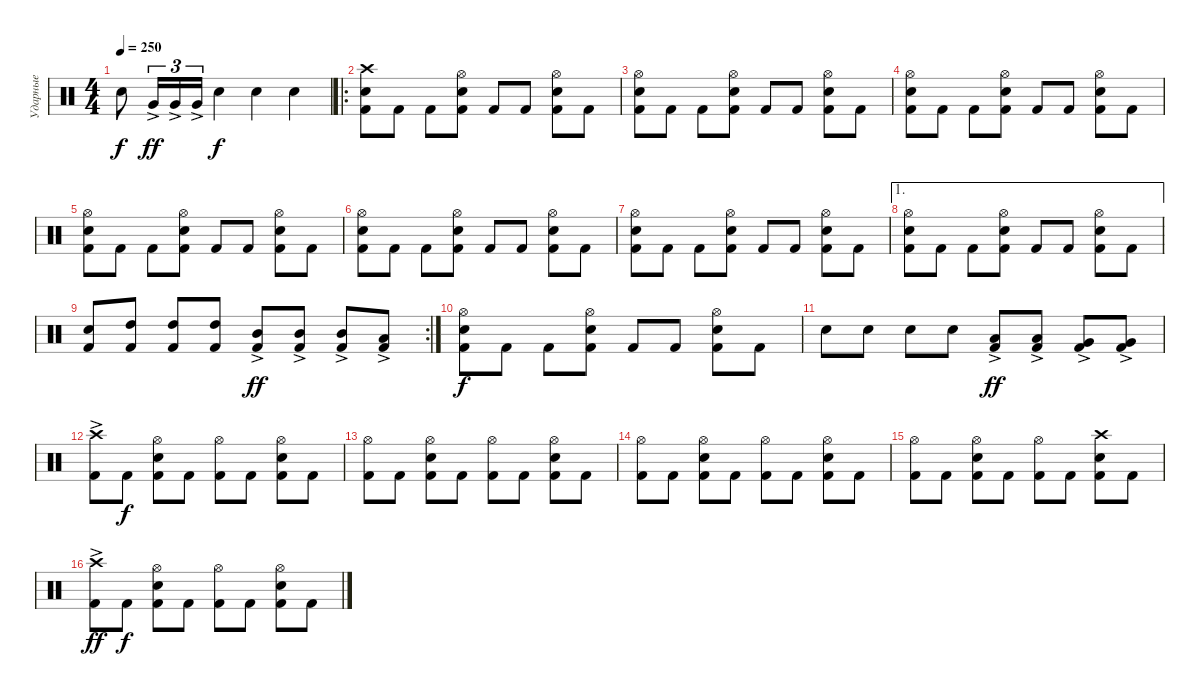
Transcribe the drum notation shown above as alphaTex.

\track ("Ударные" "Ударные") {instrument percussion}
\staff {score}
\articulation defaults
\ts (4 4)
\tempo 250
\clef neutral
\ks c "Snare (hit)"{t}.8{dy f} "Very Low Tom (hit)"{ac}.16{tu (3 2) dy ff} "Very Low Tom (hit)"{ac}.16{tu (3 2)} "Very Low Tom (hit)"{ac}.16{tu (3 2)} "Snare (hit) 2".4{dy f} "Snare (hit) 2".4 "Snare (hit) 2".4
|
\ro
("Kick (hit) 2" "Snare (hit) 2" "Crash high (hit)").8 "Kick (hit) 2".8 "Kick (hit) 2".8 ("Kick (hit) 2" "Snare (hit) 2" "Hi-Hat (open)").8 "Kick (hit) 2".8 "Kick (hit) 2".8 ("Kick (hit) 2" "Snare (hit) 2" "Hi-Hat (open)").8 "Kick (hit) 2".8 |
("Kick (hit) 2" "Snare (hit) 2" "Hi-Hat (open)").8 "Kick (hit) 2".8 "Kick (hit) 2".8 ("Kick (hit) 2" "Snare (hit) 2" "Hi-Hat (open)").8 "Kick (hit) 2".8 "Kick (hit) 2".8 ("Kick (hit) 2" "Snare (hit) 2" "Hi-Hat (open)").8 "Kick (hit) 2".8 |
("Kick (hit) 2" "Snare (hit) 2" "Hi-Hat (open)").8 "Kick (hit) 2".8 "Kick (hit) 2".8 ("Kick (hit) 2" "Snare (hit) 2" "Hi-Hat (open)").8 "Kick (hit) 2".8 "Kick (hit) 2".8 ("Kick (hit) 2" "Snare (hit) 2" "Hi-Hat (open)").8 "Kick (hit) 2".8 |
("Kick (hit) 2" "Snare (hit) 2" "Hi-Hat (open)").8 "Kick (hit) 2".8 "Kick (hit) 2".8 ("Kick (hit) 2" "Snare (hit) 2" "Hi-Hat (open)").8 "Kick (hit) 2".8 "Kick (hit) 2".8 ("Kick (hit) 2" "Snare (hit) 2" "Hi-Hat (open)").8 "Kick (hit) 2".8 |
("Kick (hit) 2" "Snare (hit) 2" "Hi-Hat (open)").8 "Kick (hit) 2".8 "Kick (hit) 2".8 ("Kick (hit) 2" "Snare (hit) 2" "Hi-Hat (open)").8 "Kick (hit) 2".8 "Kick (hit) 2".8 ("Kick (hit) 2" "Snare (hit) 2" "Hi-Hat (open)").8 "Kick (hit) 2".8 |
("Kick (hit) 2" "Snare (hit) 2" "Hi-Hat (open)").8 "Kick (hit) 2".8 "Kick (hit) 2".8 ("Kick (hit) 2" "Snare (hit) 2" "Hi-Hat (open)").8 "Kick (hit) 2".8 "Kick (hit) 2".8 ("Kick (hit) 2" "Snare (hit) 2" "Hi-Hat (open)").8 "Kick (hit) 2".8 |
\ae 1
("Kick (hit) 2" "Snare (hit) 2" "Hi-Hat (open)").8 "Kick (hit) 2".8 "Kick (hit) 2".8 ("Kick (hit) 2" "Snare (hit) 2" "Hi-Hat (open)").8 "Kick (hit) 2".8 "Kick (hit) 2".8 ("Kick (hit) 2" "Snare (hit) 2" "Hi-Hat (open)").8 "Kick (hit) 2".8 |
\rc 2
("Kick (hit) 2" "Snare (hit) 2").8 ("Kick (hit) 2" "High Tom (hit)").8 ("Kick (hit) 2" "High Tom (hit)").8 ("Kick (hit) 2" "High Tom (hit)").8 ("Kick (hit) 2" "Mid Tom (hit)"{ac}).8{dy ff} ("Kick (hit) 2" "Mid Tom (hit)"{ac}).8 ("Kick (hit) 2" "Mid Tom (hit)"{ac}).8 ("Kick (hit) 2" "Low Tom (hit)"{ac}).8 |
("Kick (hit) 2" "Snare (hit) 2" "Hi-Hat (open)").8{dy f} "Kick (hit) 2".8 "Kick (hit) 2".8 ("Kick (hit) 2" "Snare (hit) 2" "Hi-Hat (open)").8 "Kick (hit) 2".8 "Kick (hit) 2".8 ("Kick (hit) 2" "Snare (hit) 2" "Hi-Hat (open)").8 "Kick (hit) 2".8 |
"Snare (hit) 2".8 "Snare (hit) 2".8 "Snare (hit) 2".8 "Snare (hit) 2".8 ("Kick (hit) 2" "Low Tom (hit)"{ac}).8{dy ff} ("Kick (hit) 2" "Low Tom (hit)"{ac}).8 ("Kick (hit) 2" "Very Low Tom (hit)"{ac}).8 ("Kick (hit) 2" "Very Low Tom (hit)"{ac}).8 |
("Kick (hit) 2" "Crash high (hit)"{ac}).8 "Kick (hit) 2".8{dy f} ("Kick (hit) 2" "Snare (hit) 2" "Hi-Hat (open)").8 "Kick (hit) 2".8 ("Kick (hit) 2" "Hi-Hat (open)").8 "Kick (hit) 2".8 ("Kick (hit) 2" "Snare (hit) 2" "Hi-Hat (open)").8 "Kick (hit) 2".8 |
("Kick (hit) 2" "Hi-Hat (open)").8 "Kick (hit) 2".8 ("Kick (hit) 2" "Snare (hit) 2" "Hi-Hat (open)").8 "Kick (hit) 2".8 ("Kick (hit) 2" "Hi-Hat (open)").8 "Kick (hit) 2".8 ("Kick (hit) 2" "Snare (hit) 2" "Hi-Hat (open)").8 "Kick (hit) 2".8 |
("Kick (hit) 2" "Hi-Hat (open)").8 "Kick (hit) 2".8 ("Kick (hit) 2" "Snare (hit) 2" "Hi-Hat (open)").8 "Kick (hit) 2".8 ("Kick (hit) 2" "Hi-Hat (open)").8 "Kick (hit) 2".8 ("Kick (hit) 2" "Snare (hit) 2" "Hi-Hat (open)").8 "Kick (hit) 2".8 |
("Kick (hit) 2" "Hi-Hat (open)").8 "Kick (hit) 2".8 ("Kick (hit) 2" "Snare (hit) 2" "Hi-Hat (open)").8 "Kick (hit) 2".8 ("Kick (hit) 2" "Hi-Hat (open)").8 "Kick (hit) 2".8 ("Kick (hit) 2" "Snare (hit) 2" "Crash high (hit)").8 "Kick (hit) 2".8 |
("Kick (hit) 2" "Crash high (hit)"{ac}).8{dy ff} "Kick (hit) 2".8{dy f} ("Kick (hit) 2" "Snare (hit) 2" "Hi-Hat (open)").8 "Kick (hit) 2".8 ("Kick (hit) 2" "Hi-Hat (open)").8 "Kick (hit) 2".8 ("Kick (hit) 2" "Snare (hit) 2" "Hi-Hat (open)").8 "Kick (hit) 2".8
